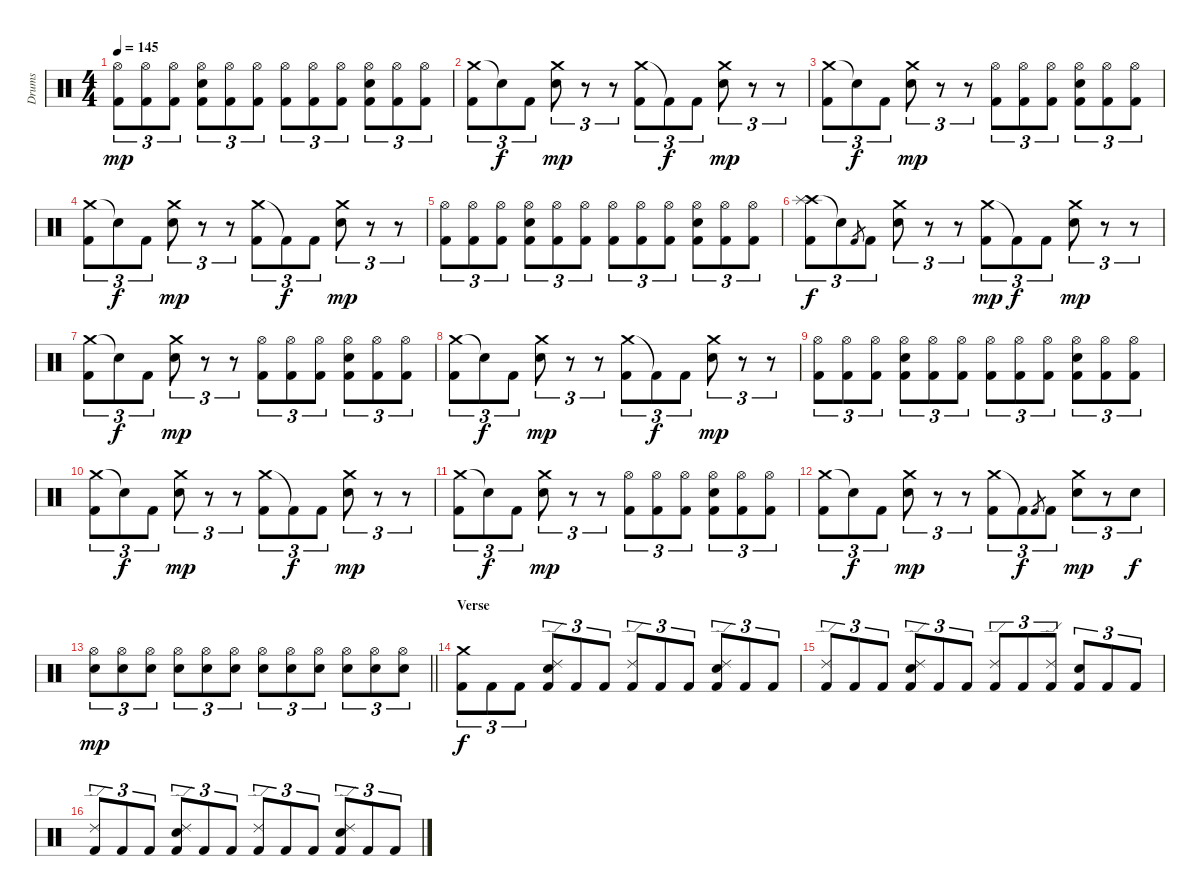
\track ("Drums" "Drums") {instrument percussion}
\staff {score}
\articulation defaults
\ts (4 4)
\tempo 145
\clef neutral
\ks c
("Hi-Hat (open)" "Kick (hit) 2").8{tu (3 2) dy mp} ("Hi-Hat (open)" "Kick (hit) 2").8{tu (3 2)} ("Hi-Hat (open)" "Kick (hit) 2").8{tu (3 2)} ("Hi-Hat (open)" "Snare (hit) 2" "Kick (hit) 2").8{tu (3 2)} ("Hi-Hat (open)" "Kick (hit) 2").8{tu (3 2)} ("Hi-Hat (open)" "Kick (hit) 2").8{tu (3 2)} ("Hi-Hat (open)" "Kick (hit) 2").8{tu (3 2)} ("Hi-Hat (open)" "Kick (hit) 2").8{tu (3 2)} ("Hi-Hat (open)" "Kick (hit) 2").8{tu (3 2)} ("Hi-Hat (open)" "Snare (hit) 2" "Kick (hit) 2").8{tu (3 2)} ("Hi-Hat (open)" "Kick (hit) 2").8{tu (3 2)} ("Hi-Hat (open)" "Kick (hit) 2").8{tu (3 2)} |
("Crash medium (hit)" "Kick (hit) 2").8{tu (3 2)} "Snare (hit)"{t}.8{tu (3 2) dy f} "Kick (hit) 2".8{tu (3 2)} ("Crash medium (hit)" "Snare (hit) 2").8{tu (3 2) dy mp} r.8{tu (3 2)} r.8{tu (3 2)} ("Crash medium (hit)" "Kick (hit) 2").8{tu (3 2)} "Kick (hit) 2"{t}.8{tu (3 2) dy f} "Kick (hit) 2".8{tu (3 2)} ("Crash medium (hit)" "Snare (hit) 2").8{tu (3 2) dy mp} r.8{tu (3 2)} r.8{tu (3 2)} |
("Crash medium (hit)" "Kick (hit) 2").8{tu (3 2)} "Snare (hit)"{t}.8{tu (3 2) dy f} "Kick (hit) 2".8{tu (3 2)} ("Crash medium (hit)" "Snare (hit) 2").8{tu (3 2) dy mp} r.8{tu (3 2)} r.8{tu (3 2)} ("Hi-Hat (open)" "Kick (hit) 2").8{tu (3 2)} ("Hi-Hat (open)" "Kick (hit) 2").8{tu (3 2)} ("Hi-Hat (open)" "Kick (hit) 2").8{tu (3 2)} ("Hi-Hat (open)" "Snare (hit) 2" "Kick (hit) 2").8{tu (3 2)} ("Hi-Hat (open)" "Kick (hit) 2").8{tu (3 2)} ("Hi-Hat (open)" "Kick (hit) 2").8{tu (3 2)} |
("Crash medium (hit)" "Kick (hit) 2").8{tu (3 2)} "Snare (hit)"{t}.8{tu (3 2) dy f} "Kick (hit) 2".8{tu (3 2)} ("Crash medium (hit)" "Snare (hit) 2").8{tu (3 2) dy mp} r.8{tu (3 2)} r.8{tu (3 2)} ("Crash medium (hit)" "Kick (hit) 2").8{tu (3 2)} "Kick (hit) 2"{t}.8{tu (3 2) dy f} "Kick (hit) 2".8{tu (3 2)} ("Crash medium (hit)" "Snare (hit) 2").8{tu (3 2) dy mp} r.8{tu (3 2)} r.8{tu (3 2)} |
("Hi-Hat (open)" "Kick (hit) 2").8{tu (3 2)} ("Hi-Hat (open)" "Kick (hit) 2").8{tu (3 2)} ("Hi-Hat (open)" "Kick (hit) 2").8{tu (3 2)} ("Hi-Hat (open)" "Snare (hit) 2" "Kick (hit) 2").8{tu (3 2)} ("Hi-Hat (open)" "Kick (hit) 2").8{tu (3 2)} ("Hi-Hat (open)" "Kick (hit) 2").8{tu (3 2)} ("Hi-Hat (open)" "Kick (hit) 2").8{tu (3 2)} ("Hi-Hat (open)" "Kick (hit) 2").8{tu (3 2)} ("Hi-Hat (open)" "Kick (hit) 2").8{tu (3 2)} ("Hi-Hat (open)" "Snare (hit) 2" "Kick (hit) 2").8{tu (3 2)} ("Hi-Hat (open)" "Kick (hit) 2").8{tu (3 2)} ("Hi-Hat (open)" "Kick (hit) 2").8{tu (3 2)} |
("Crash high (hit)" "Splash (hit)" "Kick (hit) 2").8{tu (3 2) dy f} "Snare (hit)"{t}.8{tu (3 2)} "Kick (hit) 2".8{gr} "Kick (hit) 2".8{tu (3 2)} ("Crash medium (hit)" "Snare (hit) 2").8{tu (3 2)} r.8{tu (3 2)} r.8{tu (3 2)} ("Crash medium (hit)" "Kick (hit) 2").8{tu (3 2) dy mp} "Kick (hit) 2"{t}.8{tu (3 2) dy f} "Kick (hit) 2".8{tu (3 2)} ("Crash medium (hit)" "Snare (hit) 2").8{tu (3 2) dy mp} r.8{tu (3 2)} r.8{tu (3 2)} |
("Crash medium (hit)" "Kick (hit) 2").8{tu (3 2)} "Snare (hit)"{t}.8{tu (3 2) dy f} "Kick (hit) 2".8{tu (3 2)} ("Crash medium (hit)" "Snare (hit) 2").8{tu (3 2) dy mp} r.8{tu (3 2)} r.8{tu (3 2)} ("Hi-Hat (open)" "Kick (hit) 2").8{tu (3 2)} ("Hi-Hat (open)" "Kick (hit) 2").8{tu (3 2)} ("Hi-Hat (open)" "Kick (hit) 2").8{tu (3 2)} ("Hi-Hat (open)" "Snare (hit) 2" "Kick (hit) 2").8{tu (3 2)} ("Hi-Hat (open)" "Kick (hit) 2").8{tu (3 2)} ("Hi-Hat (open)" "Kick (hit) 2").8{tu (3 2)} |
("Crash medium (hit)" "Kick (hit) 2").8{tu (3 2)} "Snare (hit)"{t}.8{tu (3 2) dy f} "Kick (hit) 2".8{tu (3 2)} ("Crash medium (hit)" "Snare (hit) 2").8{tu (3 2) dy mp} r.8{tu (3 2)} r.8{tu (3 2)} ("Crash medium (hit)" "Kick (hit) 2").8{tu (3 2)} "Kick (hit) 2"{t}.8{tu (3 2) dy f} "Kick (hit) 2".8{tu (3 2)} ("Crash medium (hit)" "Snare (hit) 2").8{tu (3 2) dy mp} r.8{tu (3 2)} r.8{tu (3 2)} |
("Hi-Hat (open)" "Kick (hit) 2").8{tu (3 2)} ("Hi-Hat (open)" "Kick (hit) 2").8{tu (3 2)} ("Hi-Hat (open)" "Kick (hit) 2").8{tu (3 2)} ("Hi-Hat (open)" "Snare (hit) 2" "Kick (hit) 2").8{tu (3 2)} ("Hi-Hat (open)" "Kick (hit) 2").8{tu (3 2)} ("Hi-Hat (open)" "Kick (hit) 2").8{tu (3 2)} ("Hi-Hat (open)" "Kick (hit) 2").8{tu (3 2)} ("Hi-Hat (open)" "Kick (hit) 2").8{tu (3 2)} ("Hi-Hat (open)" "Kick (hit) 2").8{tu (3 2)} ("Hi-Hat (open)" "Snare (hit) 2" "Kick (hit) 2").8{tu (3 2)} ("Hi-Hat (open)" "Kick (hit) 2").8{tu (3 2)} ("Hi-Hat (open)" "Kick (hit) 2").8{tu (3 2)} |
("Crash medium (hit)" "Kick (hit) 2").8{tu (3 2)} "Snare (hit)"{t}.8{tu (3 2) dy f} "Kick (hit) 2".8{tu (3 2)} ("Crash medium (hit)" "Snare (hit) 2").8{tu (3 2) dy mp} r.8{tu (3 2)} r.8{tu (3 2)} ("Crash medium (hit)" "Kick (hit) 2").8{tu (3 2)} "Kick (hit) 2"{t}.8{tu (3 2) dy f} "Kick (hit) 2".8{tu (3 2)} ("Crash medium (hit)" "Snare (hit) 2").8{tu (3 2) dy mp} r.8{tu (3 2)} r.8{tu (3 2)} |
("Crash medium (hit)" "Kick (hit) 2").8{tu (3 2)} "Snare (hit)"{t}.8{tu (3 2) dy f} "Kick (hit) 2".8{tu (3 2)} ("Crash medium (hit)" "Snare (hit) 2").8{tu (3 2) dy mp} r.8{tu (3 2)} r.8{tu (3 2)} ("Hi-Hat (open)" "Kick (hit) 2").8{tu (3 2)} ("Hi-Hat (open)" "Kick (hit) 2").8{tu (3 2)} ("Hi-Hat (open)" "Kick (hit) 2").8{tu (3 2)} ("Hi-Hat (open)" "Snare (hit) 2" "Kick (hit) 2").8{tu (3 2)} ("Hi-Hat (open)" "Kick (hit) 2").8{tu (3 2)} ("Hi-Hat (open)" "Kick (hit) 2").8{tu (3 2)} |
("Crash medium (hit)" "Kick (hit) 2").8{tu (3 2)} "Snare (hit)"{t}.8{tu (3 2) dy f} "Kick (hit) 2".8{tu (3 2)} ("Crash medium (hit)" "Snare (hit) 2").8{tu (3 2) dy mp} r.8{tu (3 2)} r.8{tu (3 2)} ("Crash medium (hit)" "Kick (hit) 2").8{tu (3 2)} "Kick (hit) 2"{t}.8{tu (3 2) dy f} "Kick (hit) 2".8{gr} "Kick (hit) 2".8{tu (3 2)} ("Crash medium (hit)" "Snare (hit) 2").8{tu (3 2) dy mp} r.8{tu (3 2)} "Snare (hit) 2".8{tu (3 2) dy f} |
\barLineRight lightlight
("Hi-Hat (open)" "Snare (hit) 2").8{tu (3 2) dy mp} ("Hi-Hat (open)" "Snare (hit) 2").8{tu (3 2)} ("Hi-Hat (open)" "Snare (hit) 2").8{tu (3 2)} ("Hi-Hat (open)" "Snare (hit) 2").8{tu (3 2)} ("Hi-Hat (open)" "Snare (hit) 2").8{tu (3 2)} ("Hi-Hat (open)" "Snare (hit) 2").8{tu (3 2)} ("Hi-Hat (open)" "Snare (hit) 2").8{tu (3 2)} ("Hi-Hat (open)" "Snare (hit) 2").8{tu (3 2)} ("Hi-Hat (open)" "Snare (hit) 2").8{tu (3 2)} ("Hi-Hat (open)" "Snare (hit) 2").8{tu (3 2)} ("Hi-Hat (open)" "Snare (hit) 2").8{tu (3 2)} ("Hi-Hat (open)" "Snare (hit) 2").8{tu (3 2)} |
\section ("" "Verse")
("Crash medium (hit)" "Kick (hit) 2").8{tu (3 2) dy f} "Kick (hit) 2".8{tu (3 2)} "Kick (hit) 2".8{tu (3 2)} ("Ride (edge) 2" "Snare (hit) 2" "Kick (hit) 2").8{tu (3 2)} "Kick (hit) 2".8{tu (3 2)} "Kick (hit) 2".8{tu (3 2)} ("Ride (edge) 2" "Kick (hit) 2").8{tu (3 2)} "Kick (hit) 2".8{tu (3 2)} "Kick (hit) 2".8{tu (3 2)} ("Ride (edge) 2" "Snare (hit) 2" "Kick (hit) 2").8{tu (3 2)} "Kick (hit) 2".8{tu (3 2)} "Kick (hit) 2".8{tu (3 2)} |
("Ride (edge) 2" "Kick (hit) 2").8{tu (3 2)} "Kick (hit) 2".8{tu (3 2)} "Kick (hit) 2".8{tu (3 2)} ("Ride (edge) 2" "Snare (hit) 2" "Kick (hit) 2").8{tu (3 2)} "Kick (hit) 2".8{tu (3 2)} "Kick (hit) 2".8{tu (3 2)} ("Ride (edge) 2" "Kick (hit) 2").8{tu (3 2)} "Kick (hit) 2".8{tu (3 2)} ("Ride (edge) 2" "Kick (hit) 2").8{tu (3 2)} ("Snare (hit) 2" "Kick (hit) 2").8{tu (3 2)} "Kick (hit) 2".8{tu (3 2)} "Kick (hit) 2".8{tu (3 2)} |
("Ride (edge) 2" "Kick (hit) 2").8{tu (3 2)} "Kick (hit) 2".8{tu (3 2)} "Kick (hit) 2".8{tu (3 2)} ("Ride (edge) 2" "Snare (hit) 2" "Kick (hit) 2").8{tu (3 2)} "Kick (hit) 2".8{tu (3 2)} "Kick (hit) 2".8{tu (3 2)} ("Ride (edge) 2" "Kick (hit) 2").8{tu (3 2)} "Kick (hit) 2".8{tu (3 2)} "Kick (hit) 2".8{tu (3 2)} ("Ride (edge) 2" "Snare (hit) 2" "Kick (hit) 2").8{tu (3 2)} "Kick (hit) 2".8{tu (3 2)} "Kick (hit) 2".8{tu (3 2)}
